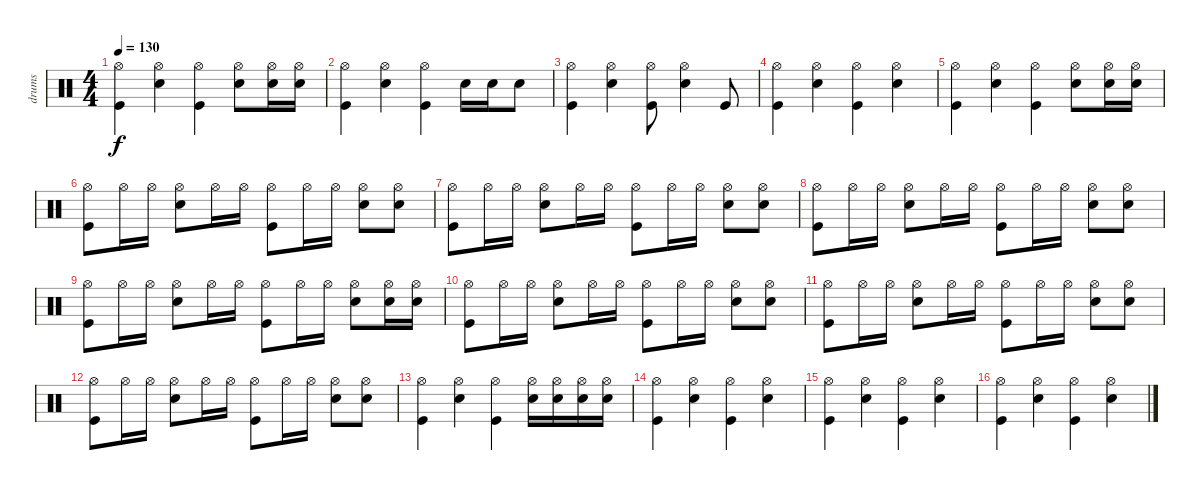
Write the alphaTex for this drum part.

\track ("drums" "drums") {instrument percussion}
\staff {score}
\articulation defaults
\ts (4 4)
\tempo 130
\clef neutral
\ks c
("Hi-Hat (open)" "Kick (hit)").4{dy f} ("Hi-Hat (open)" "Snare (hit) 2").4 ("Hi-Hat (open)" "Kick (hit)").4 ("Hi-Hat (open)" "Snare (hit) 2").8 ("Hi-Hat (open)" "Snare (hit) 2").16 ("Hi-Hat (open)" "Snare (hit) 2").16 |
("Kick (hit)" "Hi-Hat (open)").4 ("Snare (hit) 2" "Hi-Hat (open)").4 ("Kick (hit)" "Hi-Hat (open)").4 "Snare (hit) 2".16 "Snare (hit) 2".16 "Snare (hit) 2".8 |
("Hi-Hat (open)" "Kick (hit)").4 ("Hi-Hat (open)" "Snare (hit) 2").4 ("Hi-Hat (open)" "Kick (hit)").8 ("Hi-Hat (open)" "Snare (hit) 2").4 "Kick (hit)".8 |
("Hi-Hat (open)" "Kick (hit)").4 ("Hi-Hat (open)" "Snare (hit) 2").4 ("Hi-Hat (open)" "Kick (hit)").4 ("Hi-Hat (open)" "Snare (hit) 2").4 |
("Hi-Hat (open)" "Kick (hit)").4 ("Hi-Hat (open)" "Snare (hit) 2").4 ("Hi-Hat (open)" "Kick (hit)").4 ("Hi-Hat (open)" "Snare (hit) 2").8 ("Hi-Hat (open)" "Snare (hit) 2").16 ("Hi-Hat (open)" "Snare (hit) 2").16 |
("Hi-Hat (open)" "Kick (hit)").8 "Hi-Hat (open)".16 "Hi-Hat (open)".16 ("Hi-Hat (open)" "Snare (hit) 2").8 "Hi-Hat (open)".16 "Hi-Hat (open)".16 ("Hi-Hat (open)" "Kick (hit)").8 "Hi-Hat (open)".16 "Hi-Hat (open)".16 ("Snare (hit) 2" "Hi-Hat (open)").8 ("Snare (hit) 2" "Hi-Hat (open)").8 |
("Hi-Hat (open)" "Kick (hit)").8 "Hi-Hat (open)".16 "Hi-Hat (open)".16 ("Hi-Hat (open)" "Snare (hit) 2").8 "Hi-Hat (open)".16 "Hi-Hat (open)".16 ("Hi-Hat (open)" "Kick (hit)").8 "Hi-Hat (open)".16 "Hi-Hat (open)".16 ("Snare (hit) 2" "Hi-Hat (open)").8 ("Snare (hit) 2" "Hi-Hat (open)").8 |
("Hi-Hat (open)" "Kick (hit)").8 "Hi-Hat (open)".16 "Hi-Hat (open)".16 ("Hi-Hat (open)" "Snare (hit) 2").8 "Hi-Hat (open)".16 "Hi-Hat (open)".16 ("Hi-Hat (open)" "Kick (hit)").8 "Hi-Hat (open)".16 "Hi-Hat (open)".16 ("Snare (hit) 2" "Hi-Hat (open)").8 ("Snare (hit) 2" "Hi-Hat (open)").8 |
("Hi-Hat (open)" "Kick (hit)").8 "Hi-Hat (open)".16 "Hi-Hat (open)".16 ("Hi-Hat (open)" "Snare (hit) 2").8 "Hi-Hat (open)".16 "Hi-Hat (open)".16 ("Hi-Hat (open)" "Kick (hit)").8 "Hi-Hat (open)".16 "Hi-Hat (open)".16 ("Hi-Hat (open)" "Snare (hit) 2").8 ("Hi-Hat (open)" "Snare (hit) 2").16 ("Hi-Hat (open)" "Snare (hit) 2").16 |
("Hi-Hat (open)" "Kick (hit)").8 "Hi-Hat (open)".16 "Hi-Hat (open)".16 ("Hi-Hat (open)" "Snare (hit) 2").8 "Hi-Hat (open)".16 "Hi-Hat (open)".16 ("Hi-Hat (open)" "Kick (hit)").8 "Hi-Hat (open)".16 "Hi-Hat (open)".16 ("Snare (hit) 2" "Hi-Hat (open)").8 ("Snare (hit) 2" "Hi-Hat (open)").8 |
("Hi-Hat (open)" "Kick (hit)").8 "Hi-Hat (open)".16 "Hi-Hat (open)".16 ("Hi-Hat (open)" "Snare (hit) 2").8 "Hi-Hat (open)".16 "Hi-Hat (open)".16 ("Hi-Hat (open)" "Kick (hit)").8 "Hi-Hat (open)".16 "Hi-Hat (open)".16 ("Snare (hit) 2" "Hi-Hat (open)").8 ("Snare (hit) 2" "Hi-Hat (open)").8 |
("Hi-Hat (open)" "Kick (hit)").8 "Hi-Hat (open)".16 "Hi-Hat (open)".16 ("Hi-Hat (open)" "Snare (hit) 2").8 "Hi-Hat (open)".16 "Hi-Hat (open)".16 ("Hi-Hat (open)" "Kick (hit)").8 "Hi-Hat (open)".16 "Hi-Hat (open)".16 ("Snare (hit) 2" "Hi-Hat (open)").8 ("Snare (hit) 2" "Hi-Hat (open)").8 |
("Hi-Hat (open)" "Kick (hit)").4 ("Hi-Hat (open)" "Snare (hit) 2").4 ("Hi-Hat (open)" "Kick (hit)").4 ("Hi-Hat (open)" "Snare (hit) 2").16 ("Hi-Hat (open)" "Snare (hit) 2").16 ("Hi-Hat (open)" "Snare (hit) 2").16 ("Hi-Hat (open)" "Snare (hit) 2").16 |
("Hi-Hat (open)" "Kick (hit)").4 ("Hi-Hat (open)" "Snare (hit) 2").4 ("Hi-Hat (open)" "Kick (hit)").4 ("Hi-Hat (open)" "Snare (hit) 2").4 |
("Hi-Hat (open)" "Kick (hit)").4 ("Hi-Hat (open)" "Snare (hit) 2").4 ("Hi-Hat (open)" "Kick (hit)").4 ("Hi-Hat (open)" "Snare (hit) 2").4 |
("Hi-Hat (open)" "Kick (hit)").4 ("Hi-Hat (open)" "Snare (hit) 2").4 ("Hi-Hat (open)" "Kick (hit)").4 ("Hi-Hat (open)" "Snare (hit) 2").4
